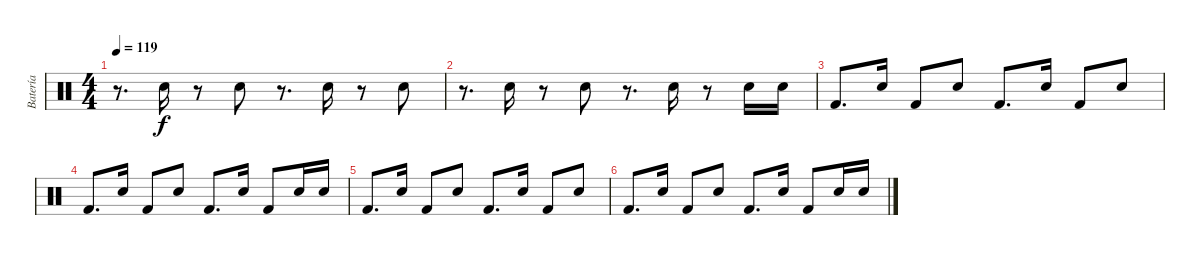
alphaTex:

\track ("Batería" "Batería") {instrument percussion}
\staff {score}
\articulation defaults
\ts (4 4)
\tempo 119
\clef neutral
\ks c
r.8{d dy f} "Electric Snare (hit)".16 r.8 "Electric Snare (hit)".8 r.8{d} "Electric Snare (hit)".16 r.8 "Electric Snare (hit)".8 |
r.8{d} "Electric Snare (hit)".16 r.8 "Electric Snare (hit)".8 r.8{d} "Electric Snare (hit)".16 r.8 "Electric Snare (hit)".16 "Electric Snare (hit)".16 |
"Kick (hit) 2".8{d} "Electric Snare (hit)".16 "Kick (hit) 2".8 "Electric Snare (hit)".8 "Kick (hit) 2".8{d} "Electric Snare (hit)".16 "Kick (hit) 2".8 "Electric Snare (hit)".8 |
"Kick (hit) 2".8{d} "Electric Snare (hit)".16 "Kick (hit) 2".8 "Electric Snare (hit)".8 "Kick (hit) 2".8{d} "Electric Snare (hit)".16 "Kick (hit) 2".8 "Electric Snare (hit)".16 "Electric Snare (hit)".16 |
"Kick (hit) 2".8{d} "Electric Snare (hit)".16 "Kick (hit) 2".8 "Electric Snare (hit)".8 "Kick (hit) 2".8{d} "Electric Snare (hit)".16 "Kick (hit) 2".8 "Electric Snare (hit)".8 |
"Kick (hit) 2".8{d} "Electric Snare (hit)".16 "Kick (hit) 2".8 "Electric Snare (hit)".8 "Kick (hit) 2".8{d} "Electric Snare (hit)".16 "Kick (hit) 2".8 "Electric Snare (hit)".16 "Electric Snare (hit)".16
